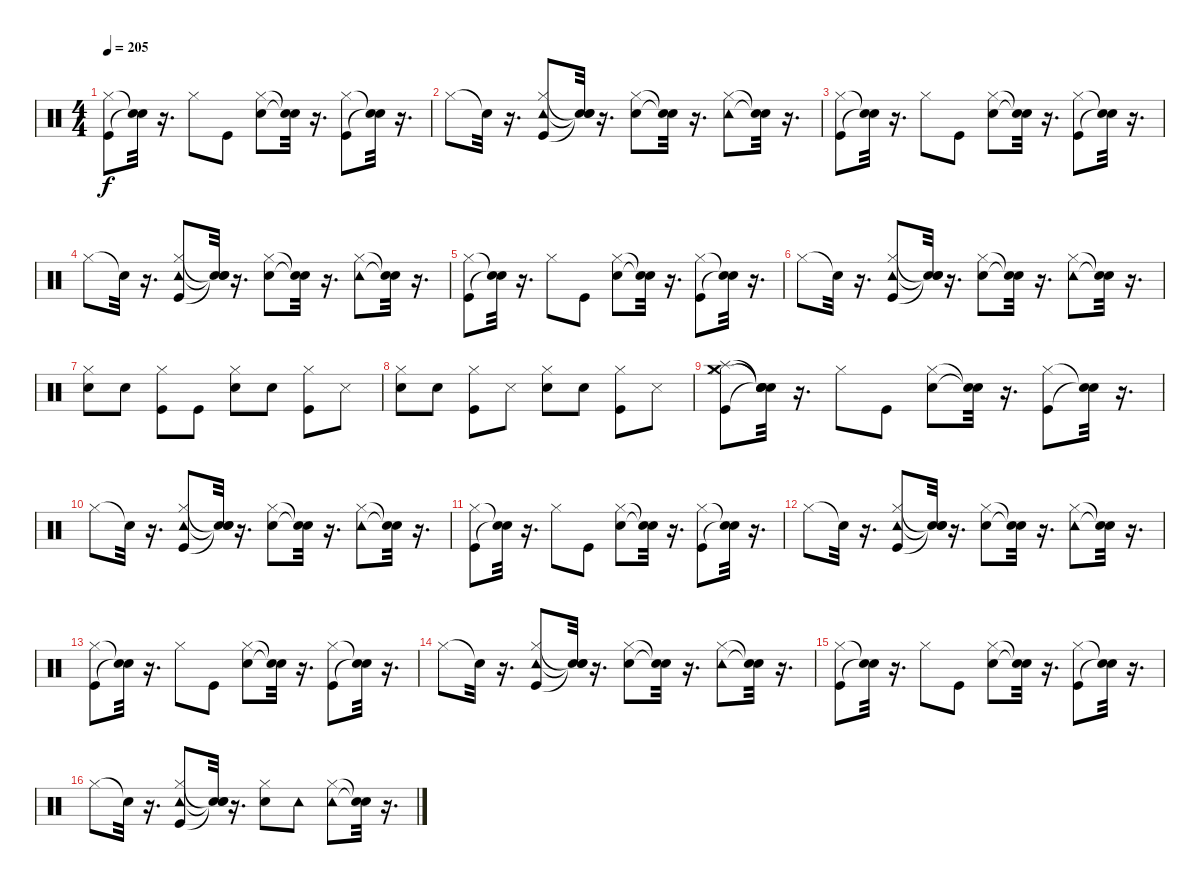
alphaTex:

\track "" {instrument percussion}
\staff {score}
\articulation defaults
\ts (4 4)
\tempo 205
\clef neutral
\ks c
("Kick (hit)" "Hi-Hat (closed)").8{dy f} ("Snare (hit)"{t} "Snare (hit)"{t}).32 r.16{d} "Hi-Hat (closed)".8 "Kick (hit)".8 ("Hi-Hat (closed)" "Electric Snare (hit)").8 ("Snare (hit)"{t} "Snare (hit)"{t}).32 r.16{d} ("Hi-Hat (closed)" "Kick (hit)").8 ("Snare (hit)"{t} "Snare (hit)"{t}).32 r.16{d} |
"Hi-Hat (closed)".8 "Snare (hit)"{t}.32 r.16{d} ("Hi-Hat (closed)" "Kick (hit)" "Tambourine (hit)").8 ("Snare (hit)"{t} "Snare (hit)"{t} "Snare (hit)"{t}).32 r.16{d} ("Hi-Hat (closed)" "Electric Snare (hit)").8 ("Snare (hit)"{t} "Snare (hit)"{t}).32 r.16{d} ("Hi-Hat (closed)" "Tambourine (hit)").8 ("Snare (hit)"{t} "Snare (hit)"{t}).32 r.16{d} |
("Kick (hit)" "Hi-Hat (closed)").8 ("Snare (hit)"{t} "Snare (hit)"{t}).32 r.16{d} "Hi-Hat (closed)".8 "Kick (hit)".8 ("Hi-Hat (closed)" "Electric Snare (hit)").8 ("Snare (hit)"{t} "Snare (hit)"{t}).32 r.16{d} ("Hi-Hat (closed)" "Kick (hit)").8 ("Snare (hit)"{t} "Snare (hit)"{t}).32 r.16{d} |
"Hi-Hat (closed)".8 "Snare (hit)"{t}.32 r.16{d} ("Hi-Hat (closed)" "Kick (hit)" "Tambourine (hit)").8 ("Snare (hit)"{t} "Snare (hit)"{t} "Snare (hit)"{t}).32 r.16{d} ("Hi-Hat (closed)" "Electric Snare (hit)").8 ("Snare (hit)"{t} "Snare (hit)"{t}).32 r.16{d} ("Hi-Hat (closed)" "Tambourine (hit)").8 ("Snare (hit)"{t} "Snare (hit)"{t}).32 r.16{d} |
("Kick (hit)" "Hi-Hat (closed)").8 ("Snare (hit)"{t} "Snare (hit)"{t}).32 r.16{d} "Hi-Hat (closed)".8 "Kick (hit)".8 ("Hi-Hat (closed)" "Electric Snare (hit)").8 ("Snare (hit)"{t} "Snare (hit)"{t}).32 r.16{d} ("Hi-Hat (closed)" "Kick (hit)").8 ("Snare (hit)"{t} "Snare (hit)"{t}).32 r.16{d} |
"Hi-Hat (closed)".8 "Snare (hit)"{t}.32 r.16{d} ("Hi-Hat (closed)" "Kick (hit)" "Tambourine (hit)").8 ("Snare (hit)"{t} "Snare (hit)"{t} "Snare (hit)"{t}).32 r.16{d} ("Hi-Hat (closed)" "Electric Snare (hit)").8 ("Snare (hit)"{t} "Snare (hit)"{t}).32 r.16{d} ("Hi-Hat (closed)" "Tambourine (hit)").8 ("Snare (hit)"{t} "Snare (hit)"{t}).32 r.16{d} |
("Hi-Hat (closed)" "Snare (hit) 2").8 "Electric Snare (hit)".8 ("Hi-Hat (closed)" "Kick (hit)").8 "Kick (hit)".8 ("Snare (hit) 2" "Hi-Hat (closed)").8 "Electric Snare (hit)".8 ("Kick (hit)" "Hi-Hat (closed)").8 "Metronome (hit)".8 |
("Snare (hit) 2" "Hi-Hat (closed)").8 "Electric Snare (hit)".8 ("Kick (hit)" "Hi-Hat (closed)").8 "Metronome (hit)".8 ("Snare (hit) 2" "Hi-Hat (closed)").8 "Electric Snare (hit)".8 ("Hi-Hat (closed)" "Kick (hit)").8 "Metronome (hit)".8 |
("Kick (hit)" "Hi-Hat (closed)" "Splash (hit)" "Crash medium (hit)").8 ("Snare (hit)"{t} "Snare (hit)"{t} "Snare (hit)"{t} "Snare (hit)"{t}).32 r.16{d} "Hi-Hat (closed)".8 "Kick (hit)".8 ("Hi-Hat (closed)" "Electric Snare (hit)").8 ("Snare (hit)"{t} "Snare (hit)"{t}).32 r.16{d} ("Hi-Hat (closed)" "Kick (hit)").8 ("Snare (hit)"{t} "Snare (hit)"{t}).32 r.16{d} |
"Hi-Hat (closed)".8 "Snare (hit)"{t}.32 r.16{d} ("Hi-Hat (closed)" "Kick (hit)" "Tambourine (hit)").8 ("Snare (hit)"{t} "Snare (hit)"{t} "Snare (hit)"{t}).32 r.16{d} ("Hi-Hat (closed)" "Electric Snare (hit)").8 ("Snare (hit)"{t} "Snare (hit)"{t}).32 r.16{d} ("Hi-Hat (closed)" "Tambourine (hit)").8 ("Snare (hit)"{t} "Snare (hit)"{t}).32 r.16{d} |
("Kick (hit)" "Hi-Hat (closed)").8 ("Snare (hit)"{t} "Snare (hit)"{t}).32 r.16{d} "Hi-Hat (closed)".8 "Kick (hit)".8 ("Hi-Hat (closed)" "Electric Snare (hit)").8 ("Snare (hit)"{t} "Snare (hit)"{t}).32 r.16{d} ("Hi-Hat (closed)" "Kick (hit)").8 ("Snare (hit)"{t} "Snare (hit)"{t}).32 r.16{d} |
"Hi-Hat (closed)".8 "Snare (hit)"{t}.32 r.16{d} ("Hi-Hat (closed)" "Kick (hit)" "Tambourine (hit)").8 ("Snare (hit)"{t} "Snare (hit)"{t} "Snare (hit)"{t}).32 r.16{d} ("Hi-Hat (closed)" "Electric Snare (hit)").8 ("Snare (hit)"{t} "Snare (hit)"{t}).32 r.16{d} ("Hi-Hat (closed)" "Tambourine (hit)").8 ("Snare (hit)"{t} "Snare (hit)"{t}).32 r.16{d} |
("Kick (hit)" "Hi-Hat (closed)").8 ("Snare (hit)"{t} "Snare (hit)"{t}).32 r.16{d} "Hi-Hat (closed)".8 "Kick (hit)".8 ("Hi-Hat (closed)" "Electric Snare (hit)").8 ("Snare (hit)"{t} "Snare (hit)"{t}).32 r.16{d} ("Hi-Hat (closed)" "Kick (hit)").8 ("Snare (hit)"{t} "Snare (hit)"{t}).32 r.16{d} |
"Hi-Hat (closed)".8 "Snare (hit)"{t}.32 r.16{d} ("Hi-Hat (closed)" "Kick (hit)" "Tambourine (hit)").8 ("Snare (hit)"{t} "Snare (hit)"{t} "Snare (hit)"{t}).32 r.16{d} ("Hi-Hat (closed)" "Electric Snare (hit)").8 ("Snare (hit)"{t} "Snare (hit)"{t}).32 r.16{d} ("Hi-Hat (closed)" "Tambourine (hit)").8 ("Snare (hit)"{t} "Snare (hit)"{t}).32 r.16{d} |
("Kick (hit)" "Hi-Hat (closed)").8 ("Snare (hit)"{t} "Snare (hit)"{t}).32 r.16{d} "Hi-Hat (closed)".8 "Kick (hit)".8 ("Hi-Hat (closed)" "Electric Snare (hit)").8 ("Snare (hit)"{t} "Snare (hit)"{t}).32 r.16{d} ("Hi-Hat (closed)" "Kick (hit)").8 ("Snare (hit)"{t} "Snare (hit)"{t}).32 r.16{d} |
"Hi-Hat (closed)".8 "Snare (hit)"{t}.32 r.16{d} ("Hi-Hat (closed)" "Kick (hit)" "Tambourine (hit)").8 ("Snare (hit)"{t} "Snare (hit)"{t} "Snare (hit)"{t}).32 r.16{d} ("Hi-Hat (closed)" "Electric Snare (hit)").8 "Tambourine (hit)".8 ("Hi-Hat (closed)" "Tambourine (hit)").8 ("Snare (hit)"{t} "Snare (hit)"{t}).32 r.16{d}
